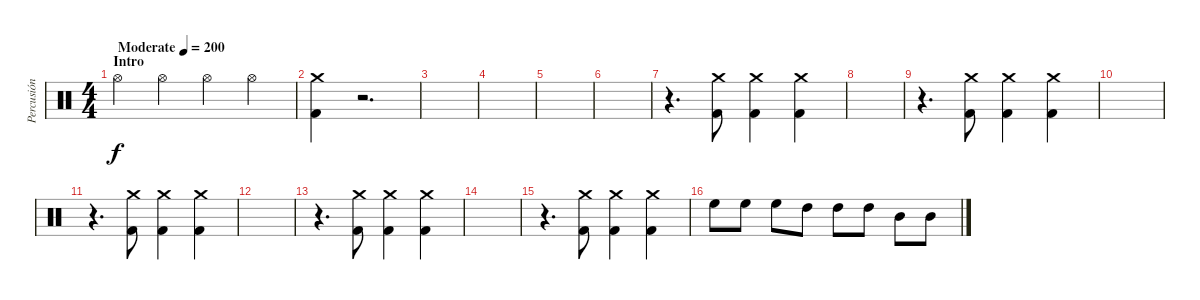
\track ("Percusión" "Percusión") {instrument percussion}
\staff {score}
\articulation defaults
\ts (4 4)
\section ("" "Intro")
\tempo (200 "Moderate")
\clef neutral
\ks c "Hi-Hat (open)".4{dy f} "Hi-Hat (open)".4 "Hi-Hat (open)".4 "Hi-Hat (open)".4
|
("Crash medium (hit)" "Kick (hit) 2").4 r.2{d} |
|
|
|
|
r.4{d} ("Crash medium (hit)" "Kick (hit) 2").8 ("Crash medium (hit)" "Kick (hit) 2").4 ("Crash medium (hit)" "Kick (hit) 2").4 |
|
r.4{d} ("Crash medium (hit)" "Kick (hit) 2").8 ("Crash medium (hit)" "Kick (hit) 2").4 ("Crash medium (hit)" "Kick (hit) 2").4 |
|
r.4{d} ("Crash medium (hit)" "Kick (hit) 2").8 ("Crash medium (hit)" "Kick (hit) 2").4 ("Crash medium (hit)" "Kick (hit) 2").4 |
|
r.4{d} ("Crash medium (hit)" "Kick (hit) 2").8 ("Crash medium (hit)" "Kick (hit) 2").4 ("Crash medium (hit)" "Kick (hit) 2").4 |
|
r.4{d} ("Crash medium (hit)" "Kick (hit) 2").8 ("Crash medium (hit)" "Kick (hit) 2").4 ("Crash medium (hit)" "Kick (hit) 2").4 |
"High Floor Tom (hit)".8 "High Floor Tom (hit)".8 "High Floor Tom (hit)".8 "High Tom (hit)".8 "High Tom (hit)".8 "High Tom (hit)".8 "Mid Tom (hit)".8 "Mid Tom (hit)".8
